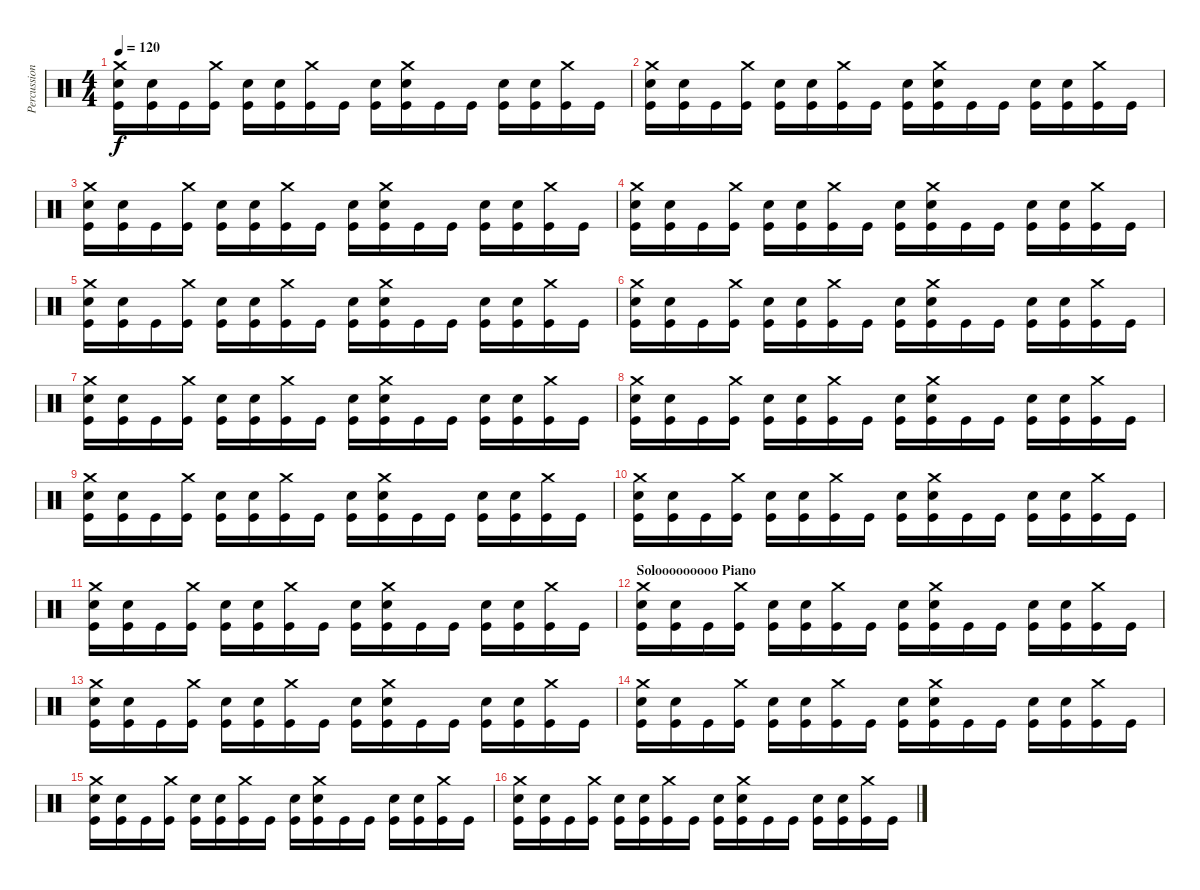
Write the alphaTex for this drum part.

\track ("Percussion" "Percussion") {instrument percussion}
\staff {score}
\articulation defaults
\ts (4 4)
\tempo 120
\clef neutral
\ks c
("Crash medium (hit)" "Snare (hit) 2" "Kick (hit)").16{dy f} ("Snare (hit) 2" "Kick (hit)").16 "Kick (hit)".16 ("Crash medium (hit)" "Kick (hit)").16 ("Snare (hit) 2" "Kick (hit)").16 ("Snare (hit) 2" "Kick (hit)").16 ("Crash medium (hit)" "Kick (hit)").16 "Kick (hit)".16 ("Snare (hit) 2" "Kick (hit)").16 ("Crash medium (hit)" "Snare (hit) 2" "Kick (hit)").16 "Kick (hit)".16 "Kick (hit)".16 ("Snare (hit) 2" "Kick (hit)").16 ("Snare (hit) 2" "Kick (hit)").16 ("Crash medium (hit)" "Kick (hit)").16 "Kick (hit)".16 |
("Crash medium (hit)" "Snare (hit) 2" "Kick (hit)").16 ("Snare (hit) 2" "Kick (hit)").16 "Kick (hit)".16 ("Crash medium (hit)" "Kick (hit)").16 ("Snare (hit) 2" "Kick (hit)").16 ("Snare (hit) 2" "Kick (hit)").16 ("Crash medium (hit)" "Kick (hit)").16 "Kick (hit)".16 ("Snare (hit) 2" "Kick (hit)").16 ("Crash medium (hit)" "Snare (hit) 2" "Kick (hit)").16 "Kick (hit)".16 "Kick (hit)".16 ("Snare (hit) 2" "Kick (hit)").16 ("Snare (hit) 2" "Kick (hit)").16 ("Crash medium (hit)" "Kick (hit)").16 "Kick (hit)".16 |
("Crash medium (hit)" "Snare (hit) 2" "Kick (hit)").16 ("Snare (hit) 2" "Kick (hit)").16 "Kick (hit)".16 ("Crash medium (hit)" "Kick (hit)").16 ("Snare (hit) 2" "Kick (hit)").16 ("Snare (hit) 2" "Kick (hit)").16 ("Crash medium (hit)" "Kick (hit)").16 "Kick (hit)".16 ("Snare (hit) 2" "Kick (hit)").16 ("Crash medium (hit)" "Snare (hit) 2" "Kick (hit)").16 "Kick (hit)".16 "Kick (hit)".16 ("Snare (hit) 2" "Kick (hit)").16 ("Snare (hit) 2" "Kick (hit)").16 ("Crash medium (hit)" "Kick (hit)").16 "Kick (hit)".16 |
("Crash medium (hit)" "Snare (hit) 2" "Kick (hit)").16 ("Snare (hit) 2" "Kick (hit)").16 "Kick (hit)".16 ("Crash medium (hit)" "Kick (hit)").16 ("Snare (hit) 2" "Kick (hit)").16 ("Snare (hit) 2" "Kick (hit)").16 ("Crash medium (hit)" "Kick (hit)").16 "Kick (hit)".16 ("Snare (hit) 2" "Kick (hit)").16 ("Crash medium (hit)" "Snare (hit) 2" "Kick (hit)").16 "Kick (hit)".16 "Kick (hit)".16 ("Snare (hit) 2" "Kick (hit)").16 ("Snare (hit) 2" "Kick (hit)").16 ("Crash medium (hit)" "Kick (hit)").16 "Kick (hit)".16 |
("Crash medium (hit)" "Snare (hit) 2" "Kick (hit)").16 ("Snare (hit) 2" "Kick (hit)").16 "Kick (hit)".16 ("Crash medium (hit)" "Kick (hit)").16 ("Snare (hit) 2" "Kick (hit)").16 ("Snare (hit) 2" "Kick (hit)").16 ("Crash medium (hit)" "Kick (hit)").16 "Kick (hit)".16 ("Snare (hit) 2" "Kick (hit)").16 ("Crash medium (hit)" "Snare (hit) 2" "Kick (hit)").16 "Kick (hit)".16 "Kick (hit)".16 ("Snare (hit) 2" "Kick (hit)").16 ("Snare (hit) 2" "Kick (hit)").16 ("Crash medium (hit)" "Kick (hit)").16 "Kick (hit)".16 |
("Crash medium (hit)" "Snare (hit) 2" "Kick (hit)").16 ("Snare (hit) 2" "Kick (hit)").16 "Kick (hit)".16 ("Crash medium (hit)" "Kick (hit)").16 ("Snare (hit) 2" "Kick (hit)").16 ("Snare (hit) 2" "Kick (hit)").16 ("Crash medium (hit)" "Kick (hit)").16 "Kick (hit)".16 ("Snare (hit) 2" "Kick (hit)").16 ("Crash medium (hit)" "Snare (hit) 2" "Kick (hit)").16 "Kick (hit)".16 "Kick (hit)".16 ("Snare (hit) 2" "Kick (hit)").16 ("Snare (hit) 2" "Kick (hit)").16 ("Crash medium (hit)" "Kick (hit)").16 "Kick (hit)".16 |
("Crash medium (hit)" "Snare (hit) 2" "Kick (hit)").16 ("Snare (hit) 2" "Kick (hit)").16 "Kick (hit)".16 ("Crash medium (hit)" "Kick (hit)").16 ("Snare (hit) 2" "Kick (hit)").16 ("Snare (hit) 2" "Kick (hit)").16 ("Crash medium (hit)" "Kick (hit)").16 "Kick (hit)".16 ("Snare (hit) 2" "Kick (hit)").16 ("Crash medium (hit)" "Snare (hit) 2" "Kick (hit)").16 "Kick (hit)".16 "Kick (hit)".16 ("Snare (hit) 2" "Kick (hit)").16 ("Snare (hit) 2" "Kick (hit)").16 ("Crash medium (hit)" "Kick (hit)").16 "Kick (hit)".16 |
("Crash medium (hit)" "Snare (hit) 2" "Kick (hit)").16 ("Snare (hit) 2" "Kick (hit)").16 "Kick (hit)".16 ("Crash medium (hit)" "Kick (hit)").16 ("Snare (hit) 2" "Kick (hit)").16 ("Snare (hit) 2" "Kick (hit)").16 ("Crash medium (hit)" "Kick (hit)").16 "Kick (hit)".16 ("Snare (hit) 2" "Kick (hit)").16 ("Crash medium (hit)" "Snare (hit) 2" "Kick (hit)").16 "Kick (hit)".16 "Kick (hit)".16 ("Snare (hit) 2" "Kick (hit)").16 ("Snare (hit) 2" "Kick (hit)").16 ("Crash medium (hit)" "Kick (hit)").16 "Kick (hit)".16 |
("Crash medium (hit)" "Snare (hit) 2" "Kick (hit)").16 ("Snare (hit) 2" "Kick (hit)").16 "Kick (hit)".16 ("Crash medium (hit)" "Kick (hit)").16 ("Snare (hit) 2" "Kick (hit)").16 ("Snare (hit) 2" "Kick (hit)").16 ("Crash medium (hit)" "Kick (hit)").16 "Kick (hit)".16 ("Snare (hit) 2" "Kick (hit)").16 ("Crash medium (hit)" "Snare (hit) 2" "Kick (hit)").16 "Kick (hit)".16 "Kick (hit)".16 ("Snare (hit) 2" "Kick (hit)").16 ("Snare (hit) 2" "Kick (hit)").16 ("Crash medium (hit)" "Kick (hit)").16 "Kick (hit)".16 |
("Crash medium (hit)" "Snare (hit) 2" "Kick (hit)").16 ("Snare (hit) 2" "Kick (hit)").16 "Kick (hit)".16 ("Crash medium (hit)" "Kick (hit)").16 ("Snare (hit) 2" "Kick (hit)").16 ("Snare (hit) 2" "Kick (hit)").16 ("Crash medium (hit)" "Kick (hit)").16 "Kick (hit)".16 ("Snare (hit) 2" "Kick (hit)").16 ("Crash medium (hit)" "Snare (hit) 2" "Kick (hit)").16 "Kick (hit)".16 "Kick (hit)".16 ("Snare (hit) 2" "Kick (hit)").16 ("Snare (hit) 2" "Kick (hit)").16 ("Crash medium (hit)" "Kick (hit)").16 "Kick (hit)".16 |
("Crash medium (hit)" "Snare (hit) 2" "Kick (hit)").16 ("Snare (hit) 2" "Kick (hit)").16 "Kick (hit)".16 ("Crash medium (hit)" "Kick (hit)").16 ("Snare (hit) 2" "Kick (hit)").16 ("Snare (hit) 2" "Kick (hit)").16 ("Crash medium (hit)" "Kick (hit)").16 "Kick (hit)".16 ("Snare (hit) 2" "Kick (hit)").16 ("Crash medium (hit)" "Snare (hit) 2" "Kick (hit)").16 "Kick (hit)".16 "Kick (hit)".16 ("Snare (hit) 2" "Kick (hit)").16 ("Snare (hit) 2" "Kick (hit)").16 ("Crash medium (hit)" "Kick (hit)").16 "Kick (hit)".16 |
\section ("" "Solooooooooo Piano")
("Crash medium (hit)" "Snare (hit) 2" "Kick (hit)").16 ("Snare (hit) 2" "Kick (hit)").16 "Kick (hit)".16 ("Crash medium (hit)" "Kick (hit)").16 ("Snare (hit) 2" "Kick (hit)").16 ("Snare (hit) 2" "Kick (hit)").16 ("Crash medium (hit)" "Kick (hit)").16 "Kick (hit)".16 ("Snare (hit) 2" "Kick (hit)").16 ("Crash medium (hit)" "Snare (hit) 2" "Kick (hit)").16 "Kick (hit)".16 "Kick (hit)".16 ("Snare (hit) 2" "Kick (hit)").16 ("Snare (hit) 2" "Kick (hit)").16 ("Crash medium (hit)" "Kick (hit)").16 "Kick (hit)".16 |
("Crash medium (hit)" "Snare (hit) 2" "Kick (hit)").16 ("Snare (hit) 2" "Kick (hit)").16 "Kick (hit)".16 ("Crash medium (hit)" "Kick (hit)").16 ("Snare (hit) 2" "Kick (hit)").16 ("Snare (hit) 2" "Kick (hit)").16 ("Crash medium (hit)" "Kick (hit)").16 "Kick (hit)".16 ("Snare (hit) 2" "Kick (hit)").16 ("Crash medium (hit)" "Snare (hit) 2" "Kick (hit)").16 "Kick (hit)".16 "Kick (hit)".16 ("Snare (hit) 2" "Kick (hit)").16 ("Snare (hit) 2" "Kick (hit)").16 ("Crash medium (hit)" "Kick (hit)").16 "Kick (hit)".16 |
("Crash medium (hit)" "Snare (hit) 2" "Kick (hit)").16 ("Snare (hit) 2" "Kick (hit)").16 "Kick (hit)".16 ("Crash medium (hit)" "Kick (hit)").16 ("Snare (hit) 2" "Kick (hit)").16 ("Snare (hit) 2" "Kick (hit)").16 ("Crash medium (hit)" "Kick (hit)").16 "Kick (hit)".16 ("Snare (hit) 2" "Kick (hit)").16 ("Crash medium (hit)" "Snare (hit) 2" "Kick (hit)").16 "Kick (hit)".16 "Kick (hit)".16 ("Snare (hit) 2" "Kick (hit)").16 ("Snare (hit) 2" "Kick (hit)").16 ("Crash medium (hit)" "Kick (hit)").16 "Kick (hit)".16 |
("Crash medium (hit)" "Snare (hit) 2" "Kick (hit)").16 ("Snare (hit) 2" "Kick (hit)").16 "Kick (hit)".16 ("Crash medium (hit)" "Kick (hit)").16 ("Snare (hit) 2" "Kick (hit)").16 ("Snare (hit) 2" "Kick (hit)").16 ("Crash medium (hit)" "Kick (hit)").16 "Kick (hit)".16 ("Snare (hit) 2" "Kick (hit)").16 ("Crash medium (hit)" "Snare (hit) 2" "Kick (hit)").16 "Kick (hit)".16 "Kick (hit)".16 ("Snare (hit) 2" "Kick (hit)").16 ("Snare (hit) 2" "Kick (hit)").16 ("Crash medium (hit)" "Kick (hit)").16 "Kick (hit)".16 |
("Crash medium (hit)" "Snare (hit) 2" "Kick (hit)").16 ("Snare (hit) 2" "Kick (hit)").16 "Kick (hit)".16 ("Crash medium (hit)" "Kick (hit)").16 ("Snare (hit) 2" "Kick (hit)").16 ("Snare (hit) 2" "Kick (hit)").16 ("Crash medium (hit)" "Kick (hit)").16 "Kick (hit)".16 ("Snare (hit) 2" "Kick (hit)").16 ("Crash medium (hit)" "Snare (hit) 2" "Kick (hit)").16 "Kick (hit)".16 "Kick (hit)".16 ("Snare (hit) 2" "Kick (hit)").16 ("Snare (hit) 2" "Kick (hit)").16 ("Crash medium (hit)" "Kick (hit)").16 "Kick (hit)".16
